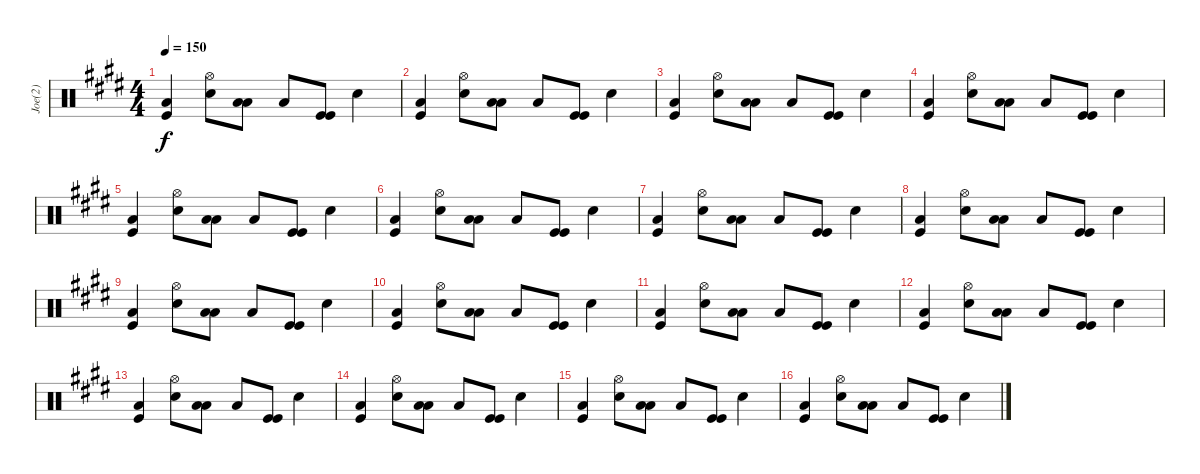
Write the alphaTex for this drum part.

\track ("Joe(2)" "Joe(2)") {instrument percussion}
\staff {score}
\articulation defaults
\ts (4 4)
\tempo 150
\clef neutral
\ks c#minor
("Kick (hit)" "Low Floor Tom (hit)").4{dy f} ("Snare (hit) 2" "Hi-Hat (open)").8 ("Low Tom (hit)" "Low Floor Tom (hit)").8 "Low Floor Tom (hit)".8 ("Kick (hit)" "Kick (hit)").8 "Snare (hit) 2".4 |
("Kick (hit)" "Low Floor Tom (hit)").4 ("Snare (hit) 2" "Hi-Hat (open)").8 ("Low Tom (hit)" "Low Floor Tom (hit)").8 "Low Floor Tom (hit)".8 ("Kick (hit)" "Kick (hit)").8 "Snare (hit) 2".4 |
("Kick (hit)" "Low Floor Tom (hit)").4 ("Snare (hit) 2" "Hi-Hat (open)").8 ("Low Tom (hit)" "Low Floor Tom (hit)").8 "Low Floor Tom (hit)".8 ("Kick (hit)" "Kick (hit)").8 "Snare (hit) 2".4 |
("Kick (hit)" "Low Floor Tom (hit)").4 ("Snare (hit) 2" "Hi-Hat (open)").8 ("Low Tom (hit)" "Low Floor Tom (hit)").8 "Low Floor Tom (hit)".8 ("Kick (hit)" "Kick (hit)").8 "Snare (hit) 2".4 |
("Kick (hit)" "Low Floor Tom (hit)").4 ("Snare (hit) 2" "Hi-Hat (open)").8 ("Low Tom (hit)" "Low Floor Tom (hit)").8 "Low Floor Tom (hit)".8 ("Kick (hit)" "Kick (hit)").8 "Snare (hit) 2".4 |
("Kick (hit)" "Low Floor Tom (hit)").4 ("Snare (hit) 2" "Hi-Hat (open)").8 ("Low Tom (hit)" "Low Floor Tom (hit)").8 "Low Floor Tom (hit)".8 ("Kick (hit)" "Kick (hit)").8 "Snare (hit) 2".4 |
("Kick (hit)" "Low Floor Tom (hit)").4 ("Snare (hit) 2" "Hi-Hat (open)").8 ("Low Tom (hit)" "Low Floor Tom (hit)").8 "Low Floor Tom (hit)".8 ("Kick (hit)" "Kick (hit)").8 "Snare (hit) 2".4 |
("Kick (hit)" "Low Floor Tom (hit)").4 ("Snare (hit) 2" "Hi-Hat (open)").8 ("Low Tom (hit)" "Low Floor Tom (hit)").8 "Low Floor Tom (hit)".8 ("Kick (hit)" "Kick (hit)").8 "Snare (hit) 2".4 |
("Kick (hit)" "Low Floor Tom (hit)").4 ("Snare (hit) 2" "Hi-Hat (open)").8 ("Low Tom (hit)" "Low Floor Tom (hit)").8 "Low Floor Tom (hit)".8 ("Kick (hit)" "Kick (hit)").8 "Snare (hit) 2".4 |
("Kick (hit)" "Low Floor Tom (hit)").4 ("Snare (hit) 2" "Hi-Hat (open)").8 ("Low Tom (hit)" "Low Floor Tom (hit)").8 "Low Floor Tom (hit)".8 ("Kick (hit)" "Kick (hit)").8 "Snare (hit) 2".4 |
("Kick (hit)" "Low Floor Tom (hit)").4 ("Snare (hit) 2" "Hi-Hat (open)").8 ("Low Tom (hit)" "Low Floor Tom (hit)").8 "Low Floor Tom (hit)".8 ("Kick (hit)" "Kick (hit)").8 "Snare (hit) 2".4 |
("Kick (hit)" "Low Floor Tom (hit)").4 ("Snare (hit) 2" "Hi-Hat (open)").8 ("Low Tom (hit)" "Low Floor Tom (hit)").8 "Low Floor Tom (hit)".8 ("Kick (hit)" "Kick (hit)").8 "Snare (hit) 2".4 |
("Kick (hit)" "Low Floor Tom (hit)").4 ("Snare (hit) 2" "Hi-Hat (open)").8 ("Low Tom (hit)" "Low Floor Tom (hit)").8 "Low Floor Tom (hit)".8 ("Kick (hit)" "Kick (hit)").8 "Snare (hit) 2".4 |
("Kick (hit)" "Low Floor Tom (hit)").4 ("Snare (hit) 2" "Hi-Hat (open)").8 ("Low Tom (hit)" "Low Floor Tom (hit)").8 "Low Floor Tom (hit)".8 ("Kick (hit)" "Kick (hit)").8 "Snare (hit) 2".4 |
("Kick (hit)" "Low Floor Tom (hit)").4 ("Snare (hit) 2" "Hi-Hat (open)").8 ("Low Tom (hit)" "Low Floor Tom (hit)").8 "Low Floor Tom (hit)".8 ("Kick (hit)" "Kick (hit)").8 "Snare (hit) 2".4 |
("Kick (hit)" "Low Floor Tom (hit)").4 ("Snare (hit) 2" "Hi-Hat (open)").8 ("Low Tom (hit)" "Low Floor Tom (hit)").8 "Low Floor Tom (hit)".8 ("Kick (hit)" "Kick (hit)").8 "Snare (hit) 2".4
